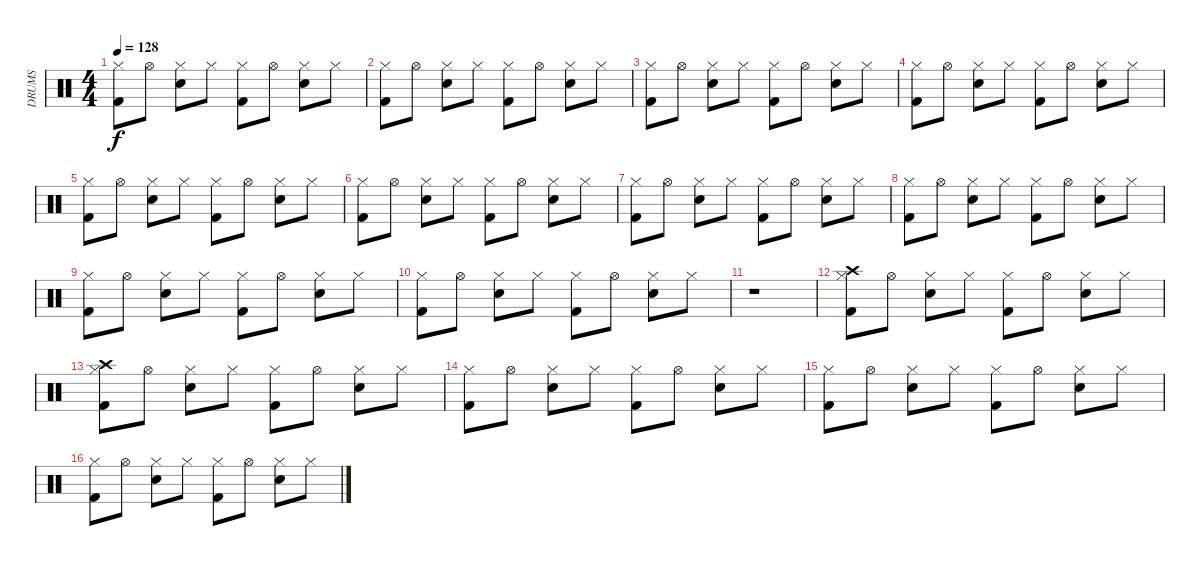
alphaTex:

\track ("DRUMS" "DRUMS") {instrument percussion}
\staff {score}
\articulation defaults
\ts (4 4)
\tempo 128
\clef neutral
\ks c
("Kick (hit) 2" "Hi-Hat (closed)").8{dy f} "Hi-Hat (open)".8 ("Electric Snare (hit)" "Hi-Hat (closed)").8 "Hi-Hat (closed)".8 ("Kick (hit) 2" "Hi-Hat (closed)").8 "Hi-Hat (open)".8 ("Electric Snare (hit)" "Hi-Hat (closed)").8 "Hi-Hat (closed)".8 |
("Kick (hit) 2" "Hi-Hat (closed)").8 "Hi-Hat (open)".8 ("Electric Snare (hit)" "Hi-Hat (closed)").8 "Hi-Hat (closed)".8 ("Kick (hit) 2" "Hi-Hat (closed)").8 "Hi-Hat (open)".8 ("Electric Snare (hit)" "Hi-Hat (closed)").8 "Hi-Hat (closed)".8 |
("Kick (hit) 2" "Hi-Hat (closed)").8 "Hi-Hat (open)".8 ("Electric Snare (hit)" "Hi-Hat (closed)").8 "Hi-Hat (closed)".8 ("Kick (hit) 2" "Hi-Hat (closed)").8 "Hi-Hat (open)".8 ("Electric Snare (hit)" "Hi-Hat (closed)").8 "Hi-Hat (closed)".8 |
("Kick (hit) 2" "Hi-Hat (closed)").8 "Hi-Hat (open)".8 ("Electric Snare (hit)" "Hi-Hat (closed)").8 "Hi-Hat (closed)".8 ("Kick (hit) 2" "Hi-Hat (closed)").8 "Hi-Hat (open)".8 ("Electric Snare (hit)" "Hi-Hat (closed)").8 "Hi-Hat (closed)".8 |
("Kick (hit) 2" "Hi-Hat (closed)").8 "Hi-Hat (open)".8 ("Electric Snare (hit)" "Hi-Hat (closed)").8 "Hi-Hat (closed)".8 ("Kick (hit) 2" "Hi-Hat (closed)").8 "Hi-Hat (open)".8 ("Electric Snare (hit)" "Hi-Hat (closed)").8 "Hi-Hat (closed)".8 |
("Kick (hit) 2" "Hi-Hat (closed)").8 "Hi-Hat (open)".8 ("Electric Snare (hit)" "Hi-Hat (closed)").8 "Hi-Hat (closed)".8 ("Kick (hit) 2" "Hi-Hat (closed)").8 "Hi-Hat (open)".8 ("Electric Snare (hit)" "Hi-Hat (closed)").8 "Hi-Hat (closed)".8 |
("Kick (hit) 2" "Hi-Hat (closed)").8 "Hi-Hat (open)".8 ("Electric Snare (hit)" "Hi-Hat (closed)").8 "Hi-Hat (closed)".8 ("Kick (hit) 2" "Hi-Hat (closed)").8 "Hi-Hat (open)".8 ("Electric Snare (hit)" "Hi-Hat (closed)").8 "Hi-Hat (closed)".8 |
("Kick (hit) 2" "Hi-Hat (closed)").8 "Hi-Hat (open)".8 ("Electric Snare (hit)" "Hi-Hat (closed)").8 "Hi-Hat (closed)".8 ("Kick (hit) 2" "Hi-Hat (closed)").8 "Hi-Hat (open)".8 ("Electric Snare (hit)" "Hi-Hat (closed)").8 "Hi-Hat (closed)".8 |
("Kick (hit) 2" "Hi-Hat (closed)").8 "Hi-Hat (open)".8 ("Electric Snare (hit)" "Hi-Hat (closed)").8 "Hi-Hat (closed)".8 ("Kick (hit) 2" "Hi-Hat (closed)").8 "Hi-Hat (open)".8 ("Electric Snare (hit)" "Hi-Hat (closed)").8 "Hi-Hat (closed)".8 |
("Kick (hit) 2" "Hi-Hat (closed)").8 "Hi-Hat (open)".8 ("Electric Snare (hit)" "Hi-Hat (closed)").8 "Hi-Hat (closed)".8 ("Kick (hit) 2" "Hi-Hat (closed)").8 "Hi-Hat (open)".8 ("Electric Snare (hit)" "Hi-Hat (closed)").8 "Hi-Hat (closed)".8 |
r.1 |
("Kick (hit) 2" "Hi-Hat (closed)" "Crash high (hit)").8 "Hi-Hat (open)".8 ("Electric Snare (hit)" "Hi-Hat (closed)").8 "Hi-Hat (closed)".8 ("Kick (hit) 2" "Hi-Hat (closed)").8 "Hi-Hat (open)".8 ("Electric Snare (hit)" "Hi-Hat (closed)").8 "Hi-Hat (closed)".8 |
("Kick (hit) 2" "Hi-Hat (closed)" "Crash high (hit)").8 "Hi-Hat (open)".8 ("Electric Snare (hit)" "Hi-Hat (closed)").8 "Hi-Hat (closed)".8 ("Kick (hit) 2" "Hi-Hat (closed)").8 "Hi-Hat (open)".8 ("Electric Snare (hit)" "Hi-Hat (closed)").8 "Hi-Hat (closed)".8 |
("Kick (hit) 2" "Hi-Hat (closed)").8 "Hi-Hat (open)".8 ("Electric Snare (hit)" "Hi-Hat (closed)").8 "Hi-Hat (closed)".8 ("Kick (hit) 2" "Hi-Hat (closed)").8 "Hi-Hat (open)".8 ("Electric Snare (hit)" "Hi-Hat (closed)").8 "Hi-Hat (closed)".8 |
("Kick (hit) 2" "Hi-Hat (closed)").8 "Hi-Hat (open)".8 ("Electric Snare (hit)" "Hi-Hat (closed)").8 "Hi-Hat (closed)".8 ("Kick (hit) 2" "Hi-Hat (closed)").8 "Hi-Hat (open)".8 ("Electric Snare (hit)" "Hi-Hat (closed)").8 "Hi-Hat (closed)".8 |
("Kick (hit) 2" "Hi-Hat (closed)").8 "Hi-Hat (open)".8 ("Electric Snare (hit)" "Hi-Hat (closed)").8 "Hi-Hat (closed)".8 ("Kick (hit) 2" "Hi-Hat (closed)").8 "Hi-Hat (open)".8 ("Electric Snare (hit)" "Hi-Hat (closed)").8 "Hi-Hat (closed)".8
